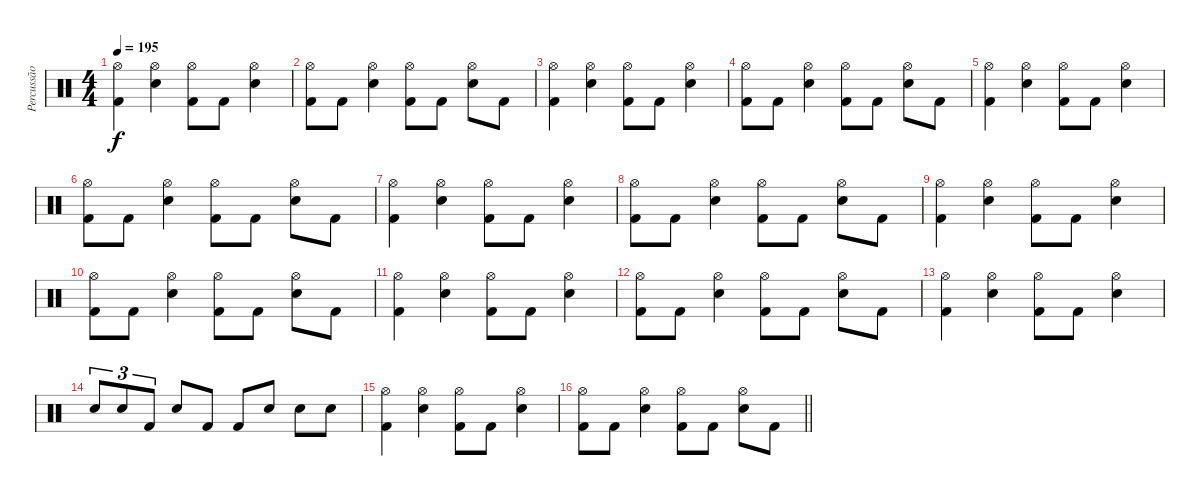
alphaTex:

\track ("Percussão" "Percussão") {instrument percussion}
\staff {score}
\articulation defaults
\ts (4 4)
\tempo 195
\clef neutral
\ks c
("Hi-Hat (open)" "Kick (hit) 2").4{dy f} ("Hi-Hat (open)" "Snare (hit) 2").4 ("Hi-Hat (open)" "Kick (hit) 2").8 "Kick (hit) 2".8 ("Hi-Hat (open)" "Snare (hit) 2").4 |
("Hi-Hat (open)" "Kick (hit) 2").8 "Kick (hit) 2".8 ("Hi-Hat (open)" "Snare (hit) 2").4 ("Hi-Hat (open)" "Kick (hit) 2").8 "Kick (hit) 2".8 ("Hi-Hat (open)" "Snare (hit) 2").8 "Kick (hit) 2".8 |
("Hi-Hat (open)" "Kick (hit) 2").4 ("Hi-Hat (open)" "Snare (hit) 2").4 ("Hi-Hat (open)" "Kick (hit) 2").8 "Kick (hit) 2".8 ("Hi-Hat (open)" "Snare (hit) 2").4 |
("Hi-Hat (open)" "Kick (hit) 2").8 "Kick (hit) 2".8 ("Hi-Hat (open)" "Snare (hit) 2").4 ("Hi-Hat (open)" "Kick (hit) 2").8 "Kick (hit) 2".8 ("Hi-Hat (open)" "Snare (hit) 2").8 "Kick (hit) 2".8 |
("Hi-Hat (open)" "Kick (hit) 2").4 ("Hi-Hat (open)" "Snare (hit) 2").4 ("Hi-Hat (open)" "Kick (hit) 2").8 "Kick (hit) 2".8 ("Hi-Hat (open)" "Snare (hit) 2").4 |
("Hi-Hat (open)" "Kick (hit) 2").8 "Kick (hit) 2".8 ("Hi-Hat (open)" "Snare (hit) 2").4 ("Hi-Hat (open)" "Kick (hit) 2").8 "Kick (hit) 2".8 ("Hi-Hat (open)" "Snare (hit) 2").8 "Kick (hit) 2".8 |
("Hi-Hat (open)" "Kick (hit) 2").4 ("Hi-Hat (open)" "Snare (hit) 2").4 ("Hi-Hat (open)" "Kick (hit) 2").8 "Kick (hit) 2".8 ("Hi-Hat (open)" "Snare (hit) 2").4 |
("Hi-Hat (open)" "Kick (hit) 2").8 "Kick (hit) 2".8 ("Hi-Hat (open)" "Snare (hit) 2").4 ("Hi-Hat (open)" "Kick (hit) 2").8 "Kick (hit) 2".8 ("Hi-Hat (open)" "Snare (hit) 2").8 "Kick (hit) 2".8 |
("Hi-Hat (open)" "Kick (hit) 2").4 ("Hi-Hat (open)" "Snare (hit) 2").4 ("Hi-Hat (open)" "Kick (hit) 2").8 "Kick (hit) 2".8 ("Hi-Hat (open)" "Snare (hit) 2").4 |
("Hi-Hat (open)" "Kick (hit) 2").8 "Kick (hit) 2".8 ("Hi-Hat (open)" "Snare (hit) 2").4 ("Hi-Hat (open)" "Kick (hit) 2").8 "Kick (hit) 2".8 ("Hi-Hat (open)" "Snare (hit) 2").8 "Kick (hit) 2".8 |
("Hi-Hat (open)" "Kick (hit) 2").4 ("Hi-Hat (open)" "Snare (hit) 2").4 ("Hi-Hat (open)" "Kick (hit) 2").8 "Kick (hit) 2".8 ("Hi-Hat (open)" "Snare (hit) 2").4 |
("Hi-Hat (open)" "Kick (hit) 2").8 "Kick (hit) 2".8 ("Hi-Hat (open)" "Snare (hit) 2").4 ("Hi-Hat (open)" "Kick (hit) 2").8 "Kick (hit) 2".8 ("Hi-Hat (open)" "Snare (hit) 2").8 "Kick (hit) 2".8 |
("Hi-Hat (open)" "Kick (hit) 2").4 ("Hi-Hat (open)" "Snare (hit) 2").4 ("Hi-Hat (open)" "Kick (hit) 2").8 "Kick (hit) 2".8 ("Hi-Hat (open)" "Snare (hit) 2").4 |
"Snare (hit) 2".8{tu (3 2)} "Snare (hit) 2".8{tu (3 2)} "Kick (hit) 2".8{tu (3 2)} "Snare (hit) 2".8 "Kick (hit) 2".8 "Kick (hit) 2".8 "Snare (hit) 2".8 "Snare (hit) 2".8 "Snare (hit) 2".8 |
("Hi-Hat (open)" "Kick (hit) 2").4 ("Hi-Hat (open)" "Snare (hit) 2").4 ("Hi-Hat (open)" "Kick (hit) 2").8 "Kick (hit) 2".8 ("Hi-Hat (open)" "Snare (hit) 2").4 |
\barLineRight lightlight
("Hi-Hat (open)" "Kick (hit) 2").8 "Kick (hit) 2".8 ("Hi-Hat (open)" "Snare (hit) 2").4 ("Hi-Hat (open)" "Kick (hit) 2").8 "Kick (hit) 2".8 ("Hi-Hat (open)" "Snare (hit) 2").8 "Kick (hit) 2".8
